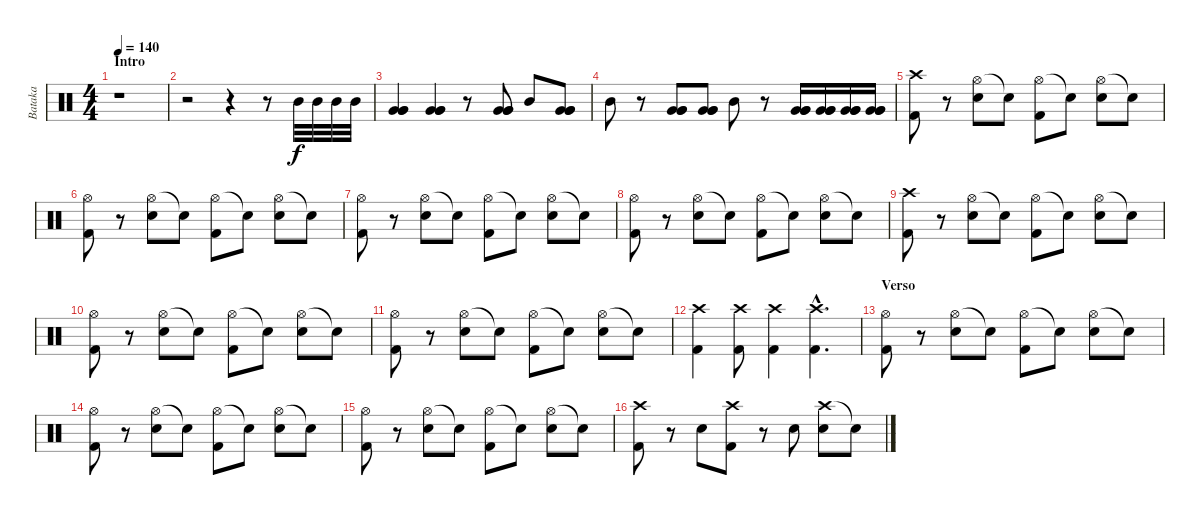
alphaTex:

\track ("Bataka" "Bataka") {instrument percussion}
\staff {score}
\articulation defaults
\ts (4 4)
\section ("" "Intro")
\tempo 140
\clef neutral
\ks c
r.1{dy f} |
r.2 r.4 r.8 "Mid Tom (hit)".32 "Mid Tom (hit)".32 "Mid Tom (hit)".32 "Mid Tom (hit)".32 |
("Very Low Tom (hit)" "Very Low Tom (hit)" "Very Low Tom (hit)").4 ("Very Low Tom (hit)" "Very Low Tom (hit)" "Very Low Tom (hit)").4 r.8 ("Very Low Tom (hit)" "Very Low Tom (hit)" "Very Low Tom (hit)").8 "Mid Tom (hit)".8 ("Very Low Tom (hit)" "Very Low Tom (hit)" "Very Low Tom (hit)").8 |
"Mid Tom (hit)".8 r.8 ("Very Low Tom (hit)" "Very Low Tom (hit)" "Very Low Tom (hit)").8 ("Very Low Tom (hit)" "Very Low Tom (hit)" "Very Low Tom (hit)").8 "Mid Tom (hit)".8 r.8 ("Very Low Tom (hit)" "Very Low Tom (hit)" "Very Low Tom (hit)").16 ("Very Low Tom (hit)" "Very Low Tom (hit)" "Very Low Tom (hit)").16 ("Very Low Tom (hit)" "Very Low Tom (hit)" "Very Low Tom (hit)").16 ("Very Low Tom (hit)" "Very Low Tom (hit)" "Very Low Tom (hit)").16 |
("Crash high (hit)" "Kick (hit) 2").8 r.8 ("Hi-Hat (open)" "Snare (hit) 2").8 "Snare (hit)"{t}.8 ("Hi-Hat (open)" "Kick (hit) 2").8 "Snare (hit)"{t}.8 ("Hi-Hat (open)" "Snare (hit) 2").8 "Snare (hit)"{t}.8 |
("Hi-Hat (open)" "Kick (hit) 2").8 r.8 ("Hi-Hat (open)" "Snare (hit) 2").8 "Snare (hit)"{t}.8 ("Hi-Hat (open)" "Kick (hit) 2").8 "Snare (hit)"{t}.8 ("Hi-Hat (open)" "Snare (hit) 2").8 "Snare (hit)"{t}.8 |
("Hi-Hat (open)" "Kick (hit) 2").8 r.8 ("Hi-Hat (open)" "Snare (hit) 2").8 "Snare (hit)"{t}.8 ("Hi-Hat (open)" "Kick (hit) 2").8 "Snare (hit)"{t}.8 ("Hi-Hat (open)" "Snare (hit) 2").8 "Snare (hit)"{t}.8 |
("Hi-Hat (open)" "Kick (hit) 2").8 r.8 ("Hi-Hat (open)" "Snare (hit) 2").8 "Snare (hit)"{t}.8 ("Hi-Hat (open)" "Kick (hit) 2").8 "Snare (hit)"{t}.8 ("Hi-Hat (open)" "Snare (hit) 2").8 "Snare (hit)"{t}.8 |
("Crash high (hit)" "Kick (hit) 2").8 r.8 ("Hi-Hat (open)" "Snare (hit) 2").8 "Snare (hit)"{t}.8 ("Hi-Hat (open)" "Kick (hit) 2").8 "Snare (hit)"{t}.8 ("Hi-Hat (open)" "Snare (hit) 2").8 "Snare (hit)"{t}.8 |
("Hi-Hat (open)" "Kick (hit) 2").8 r.8 ("Hi-Hat (open)" "Snare (hit) 2").8 "Snare (hit)"{t}.8 ("Hi-Hat (open)" "Kick (hit) 2").8 "Snare (hit)"{t}.8 ("Hi-Hat (open)" "Snare (hit) 2").8 "Snare (hit)"{t}.8 |
("Hi-Hat (open)" "Kick (hit) 2").8 r.8 ("Hi-Hat (open)" "Snare (hit) 2").8 "Snare (hit)"{t}.8 ("Hi-Hat (open)" "Kick (hit) 2").8 "Snare (hit)"{t}.8 ("Hi-Hat (open)" "Snare (hit) 2").8 "Snare (hit)"{t}.8 |
("Crash high (hit)" "Kick (hit) 2").4 ("Crash high (hit)" "Kick (hit) 2").8 ("Crash high (hit)" "Kick (hit) 2").4 ("Crash high (hit)"{hac} "Kick (hit) 2"{hac}).4{d} |
\section ("" "Verso")
("Hi-Hat (open)" "Kick (hit) 2").8 r.8 ("Hi-Hat (open)" "Snare (hit) 2").8 "Snare (hit)"{t}.8 ("Hi-Hat (open)" "Kick (hit) 2").8 "Snare (hit)"{t}.8 ("Hi-Hat (open)" "Snare (hit) 2").8 "Snare (hit)"{t}.8 |
("Hi-Hat (open)" "Kick (hit) 2").8 r.8 ("Hi-Hat (open)" "Snare (hit) 2").8 "Snare (hit)"{t}.8 ("Hi-Hat (open)" "Kick (hit) 2").8 "Snare (hit)"{t}.8 ("Hi-Hat (open)" "Snare (hit) 2").8 "Snare (hit)"{t}.8 |
("Hi-Hat (open)" "Kick (hit) 2").8 r.8 ("Hi-Hat (open)" "Snare (hit) 2").8 "Snare (hit)"{t}.8 ("Hi-Hat (open)" "Kick (hit) 2").8 "Snare (hit)"{t}.8 ("Hi-Hat (open)" "Snare (hit) 2").8 "Snare (hit)"{t}.8 |
("Crash high (hit)" "Kick (hit) 2").8 r.8 "Snare (hit) 2".8 ("Crash high (hit)" "Kick (hit) 2").8 r.8 "Snare (hit) 2".8 ("Crash high (hit)" "Snare (hit) 2").8 "Snare (hit)"{t}.8
